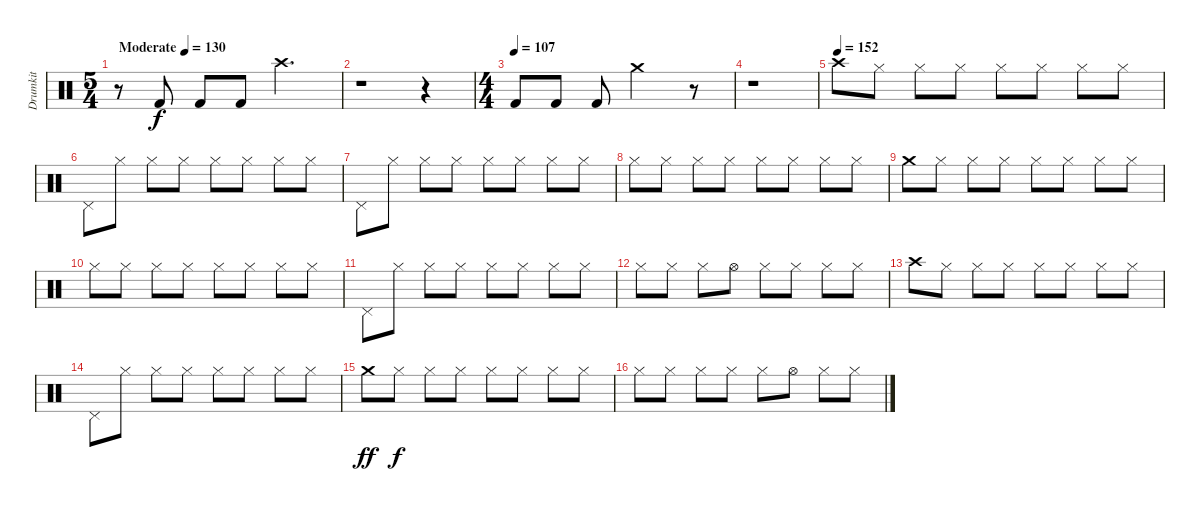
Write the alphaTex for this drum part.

\track ("Drumkit" "Drumkit") {instrument percussion}
\staff {score}
\articulation defaults
\ts (5 4)
\tempo (130 "Moderate")
\clef neutral
\ks c
r.8{dy f} "Kick (hit) 2".8 "Kick (hit) 2".8 "Kick (hit) 2".8 "Crash high (hit)".2{d} |
r.1 r.4 |
\ts (4 4)
\tempo (107)
"Kick (hit) 2".8 "Kick (hit) 2".8 "Kick (hit) 2".8 "Crash medium (hit)".2 r.8 |
r.1 |
\tempo (152)
"Crash high (hit)".8 "Hi-Hat (closed)".8 "Hi-Hat (closed)".8 "Hi-Hat (closed)".8 "Hi-Hat (closed)".8 "Hi-Hat (closed)".8 "Hi-Hat (closed)".8 "Hi-Hat (closed)".8 |
"Pedal Hi-Hat (hit)".8 "Hi-Hat (closed)".8 "Hi-Hat (closed)".8 "Hi-Hat (closed)".8 "Hi-Hat (closed)".8 "Hi-Hat (closed)".8 "Hi-Hat (closed)".8 "Hi-Hat (closed)".8 |
"Pedal Hi-Hat (hit)".8 "Hi-Hat (closed)".8 "Hi-Hat (closed)".8 "Hi-Hat (closed)".8 "Hi-Hat (closed)".8 "Hi-Hat (closed)".8 "Hi-Hat (closed)".8 "Hi-Hat (closed)".8 |
"Hi-Hat (closed)".8 "Hi-Hat (closed)".8 "Hi-Hat (closed)".8 "Hi-Hat (closed)".8 "Hi-Hat (closed)".8 "Hi-Hat (closed)".8 "Hi-Hat (closed)".8 "Hi-Hat (closed)".8 |
"Crash medium (hit)".8 "Hi-Hat (closed)".8 "Hi-Hat (closed)".8 "Hi-Hat (closed)".8 "Hi-Hat (closed)".8 "Hi-Hat (closed)".8 "Hi-Hat (closed)".8 "Hi-Hat (closed)".8 |
"Hi-Hat (closed)".8 "Hi-Hat (closed)".8 "Hi-Hat (closed)".8 "Hi-Hat (closed)".8 "Hi-Hat (closed)".8 "Hi-Hat (closed)".8 "Hi-Hat (closed)".8 "Hi-Hat (closed)".8 |
"Pedal Hi-Hat (hit)".8 "Hi-Hat (closed)".8 "Hi-Hat (closed)".8 "Hi-Hat (closed)".8 "Hi-Hat (closed)".8 "Hi-Hat (closed)".8 "Hi-Hat (closed)".8 "Hi-Hat (closed)".8 |
"Hi-Hat (closed)".8 "Hi-Hat (closed)".8 "Hi-Hat (closed)".8 "Hi-Hat (open)".8 "Hi-Hat (closed)".8 "Hi-Hat (closed)".8 "Hi-Hat (closed)".8 "Hi-Hat (closed)".8 |
"Crash high (hit)".8 "Hi-Hat (closed)".8 "Hi-Hat (closed)".8 "Hi-Hat (closed)".8 "Hi-Hat (closed)".8 "Hi-Hat (closed)".8 "Hi-Hat (closed)".8 "Hi-Hat (closed)".8 |
"Pedal Hi-Hat (hit)".8 "Hi-Hat (closed)".8 "Hi-Hat (closed)".8 "Hi-Hat (closed)".8 "Hi-Hat (closed)".8 "Hi-Hat (closed)".8 "Hi-Hat (closed)".8 "Hi-Hat (closed)".8 |
"Crash medium (hit)".8{dy ff} "Hi-Hat (closed)".8{dy f} "Hi-Hat (closed)".8 "Hi-Hat (closed)".8 "Hi-Hat (closed)".8 "Hi-Hat (closed)".8 "Hi-Hat (closed)".8 "Hi-Hat (closed)".8 |
"Hi-Hat (closed)".8 "Hi-Hat (closed)".8 "Hi-Hat (closed)".8 "Hi-Hat (closed)".8 "Hi-Hat (closed)".8 "Hi-Hat (open)".8 "Hi-Hat (closed)".8 "Hi-Hat (closed)".8
